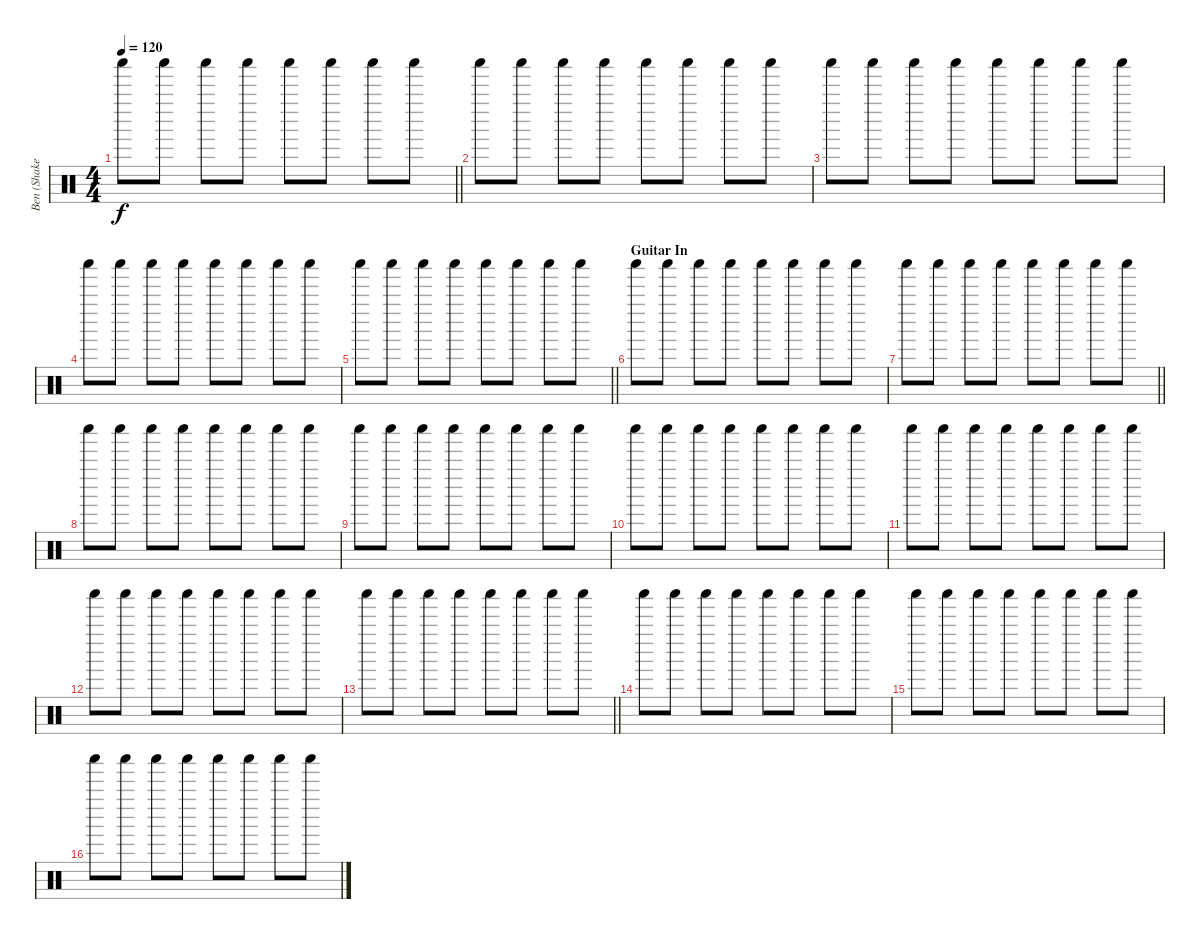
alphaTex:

\track ("Ben (Shaker LOL)" "Ben (Shake") {instrument percussion}
\staff {score}
\articulation defaults
\ts (4 4)
\tempo 120
\clef neutral
\barLineRight lightlight
\ks c "Shaker (hit)".8{dy f} "Shaker (hit)".8 "Shaker (hit)".8 "Shaker (hit)".8 "Shaker (hit)".8 "Shaker (hit)".8 "Shaker (hit)".8 "Shaker (hit)".8
|
"Shaker (hit)".8 "Shaker (hit)".8 "Shaker (hit)".8 "Shaker (hit)".8 "Shaker (hit)".8 "Shaker (hit)".8 "Shaker (hit)".8 "Shaker (hit)".8 |
"Shaker (hit)".8 "Shaker (hit)".8 "Shaker (hit)".8 "Shaker (hit)".8 "Shaker (hit)".8 "Shaker (hit)".8 "Shaker (hit)".8 "Shaker (hit)".8 |
"Shaker (hit)".8 "Shaker (hit)".8 "Shaker (hit)".8 "Shaker (hit)".8 "Shaker (hit)".8 "Shaker (hit)".8 "Shaker (hit)".8 "Shaker (hit)".8 |
\barLineRight lightlight "Shaker (hit)".8 "Shaker (hit)".8 "Shaker (hit)".8 "Shaker (hit)".8 "Shaker (hit)".8 "Shaker (hit)".8 "Shaker (hit)".8 "Shaker (hit)".8
|
\section ("" "Guitar In")
"Shaker (hit)".8 "Shaker (hit)".8 "Shaker (hit)".8 "Shaker (hit)".8 "Shaker (hit)".8 "Shaker (hit)".8 "Shaker (hit)".8 "Shaker (hit)".8 |
\barLineRight lightlight "Shaker (hit)".8 "Shaker (hit)".8 "Shaker (hit)".8 "Shaker (hit)".8 "Shaker (hit)".8 "Shaker (hit)".8 "Shaker (hit)".8 "Shaker (hit)".8
|
"Shaker (hit)".8 "Shaker (hit)".8 "Shaker (hit)".8 "Shaker (hit)".8 "Shaker (hit)".8 "Shaker (hit)".8 "Shaker (hit)".8 "Shaker (hit)".8 |
"Shaker (hit)".8 "Shaker (hit)".8 "Shaker (hit)".8 "Shaker (hit)".8 "Shaker (hit)".8 "Shaker (hit)".8 "Shaker (hit)".8 "Shaker (hit)".8 |
"Shaker (hit)".8 "Shaker (hit)".8 "Shaker (hit)".8 "Shaker (hit)".8 "Shaker (hit)".8 "Shaker (hit)".8 "Shaker (hit)".8 "Shaker (hit)".8 |
"Shaker (hit)".8 "Shaker (hit)".8 "Shaker (hit)".8 "Shaker (hit)".8 "Shaker (hit)".8 "Shaker (hit)".8 "Shaker (hit)".8 "Shaker (hit)".8 |
"Shaker (hit)".8 "Shaker (hit)".8 "Shaker (hit)".8 "Shaker (hit)".8 "Shaker (hit)".8 "Shaker (hit)".8 "Shaker (hit)".8 "Shaker (hit)".8 |
\barLineRight lightlight "Shaker (hit)".8 "Shaker (hit)".8 "Shaker (hit)".8 "Shaker (hit)".8 "Shaker (hit)".8 "Shaker (hit)".8 "Shaker (hit)".8 "Shaker (hit)".8
|
"Shaker (hit)".8 "Shaker (hit)".8 "Shaker (hit)".8 "Shaker (hit)".8 "Shaker (hit)".8 "Shaker (hit)".8 "Shaker (hit)".8 "Shaker (hit)".8 |
"Shaker (hit)".8 "Shaker (hit)".8 "Shaker (hit)".8 "Shaker (hit)".8 "Shaker (hit)".8 "Shaker (hit)".8 "Shaker (hit)".8 "Shaker (hit)".8 |
"Shaker (hit)".8 "Shaker (hit)".8 "Shaker (hit)".8 "Shaker (hit)".8 "Shaker (hit)".8 "Shaker (hit)".8 "Shaker (hit)".8 "Shaker (hit)".8
